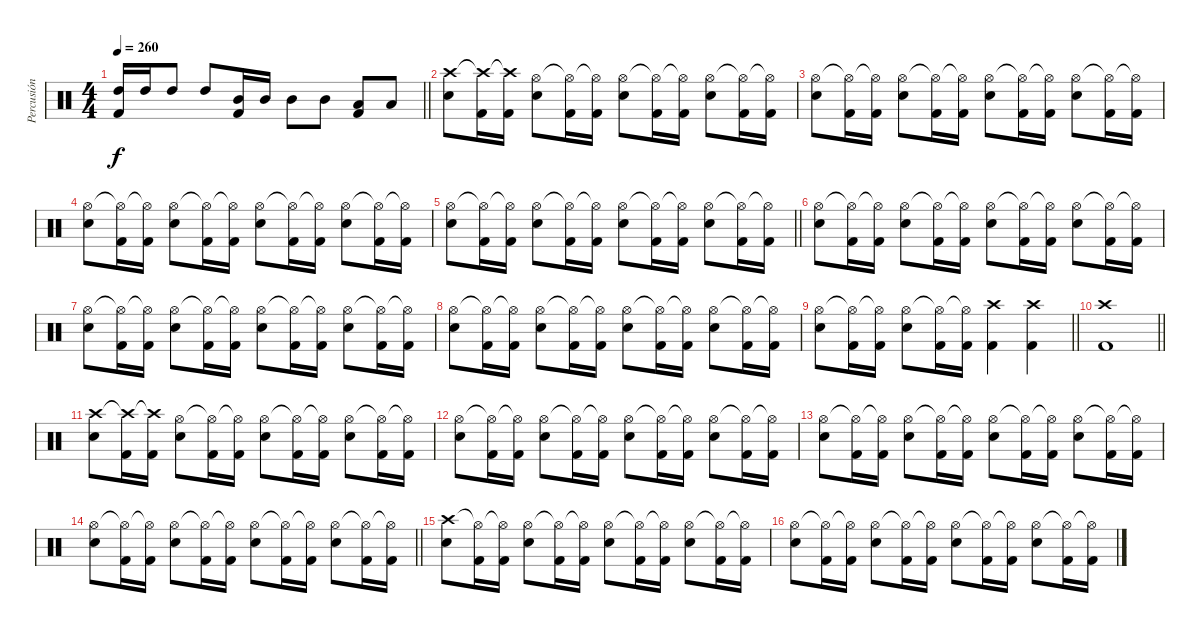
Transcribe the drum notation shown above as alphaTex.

\track ("Percusión" "Percusión") {instrument percussion}
\staff {score}
\articulation defaults
\ts (4 4)
\tempo 260
\clef neutral
\barLineRight lightlight
\ks c
("Kick (hit) 2" "High Tom (hit)").16{dy f} "High Tom (hit)".16 "High Tom (hit)".8 "High Tom (hit)".8 ("Kick (hit) 2" "Mid Tom (hit)").16 "Mid Tom (hit)".16 "Mid Tom (hit)".8 "Mid Tom (hit)".8 ("Kick (hit) 2" "Low Tom (hit)").8 "Low Tom (hit)".8 |
("Snare (hit) 2" "Crash high (hit)").8 ("Kick (hit) 2" "Crash high (hit)"{t}).16 ("Kick (hit) 2" "Crash high (hit)"{t}).16 ("Snare (hit) 2" "Hi-Hat (open)").8 ("Kick (hit) 2" "Hi-Hat (open)"{t}).16 ("Kick (hit) 2" "Hi-Hat (open)"{t}).16 ("Snare (hit) 2" "Hi-Hat (open)").8 ("Kick (hit) 2" "Hi-Hat (open)"{t}).16 ("Kick (hit) 2" "Hi-Hat (open)"{t}).16 ("Snare (hit) 2" "Hi-Hat (open)").8 ("Kick (hit) 2" "Hi-Hat (open)"{t}).16 ("Kick (hit) 2" "Hi-Hat (open)"{t}).16 |
("Snare (hit) 2" "Hi-Hat (open)").8 ("Kick (hit) 2" "Hi-Hat (open)"{t}).16 ("Kick (hit) 2" "Hi-Hat (open)"{t}).16 ("Snare (hit) 2" "Hi-Hat (open)").8 ("Kick (hit) 2" "Hi-Hat (open)"{t}).16 ("Kick (hit) 2" "Hi-Hat (open)"{t}).16 ("Snare (hit) 2" "Hi-Hat (open)").8 ("Kick (hit) 2" "Hi-Hat (open)"{t}).16 ("Kick (hit) 2" "Hi-Hat (open)"{t}).16 ("Snare (hit) 2" "Hi-Hat (open)").8 ("Kick (hit) 2" "Hi-Hat (open)"{t}).16 ("Kick (hit) 2" "Hi-Hat (open)"{t}).16 |
("Snare (hit) 2" "Hi-Hat (open)").8 ("Kick (hit) 2" "Hi-Hat (open)"{t}).16 ("Kick (hit) 2" "Hi-Hat (open)"{t}).16 ("Snare (hit) 2" "Hi-Hat (open)").8 ("Kick (hit) 2" "Hi-Hat (open)"{t}).16 ("Kick (hit) 2" "Hi-Hat (open)"{t}).16 ("Snare (hit) 2" "Hi-Hat (open)").8 ("Kick (hit) 2" "Hi-Hat (open)"{t}).16 ("Kick (hit) 2" "Hi-Hat (open)"{t}).16 ("Snare (hit) 2" "Hi-Hat (open)").8 ("Kick (hit) 2" "Hi-Hat (open)"{t}).16 ("Kick (hit) 2" "Hi-Hat (open)"{t}).16 |
\barLineRight lightlight
("Snare (hit) 2" "Hi-Hat (open)").8 ("Kick (hit) 2" "Hi-Hat (open)"{t}).16 ("Kick (hit) 2" "Hi-Hat (open)"{t}).16 ("Snare (hit) 2" "Hi-Hat (open)").8 ("Kick (hit) 2" "Hi-Hat (open)"{t}).16 ("Kick (hit) 2" "Hi-Hat (open)"{t}).16 ("Snare (hit) 2" "Hi-Hat (open)").8 ("Kick (hit) 2" "Hi-Hat (open)"{t}).16 ("Kick (hit) 2" "Hi-Hat (open)"{t}).16 ("Snare (hit) 2" "Hi-Hat (open)").8 ("Kick (hit) 2" "Hi-Hat (open)"{t}).16 ("Kick (hit) 2" "Hi-Hat (open)"{t}).16 |
("Snare (hit) 2" "Hi-Hat (open)").8 ("Kick (hit) 2" "Hi-Hat (open)"{t}).16 ("Kick (hit) 2" "Hi-Hat (open)"{t}).16 ("Snare (hit) 2" "Hi-Hat (open)").8 ("Kick (hit) 2" "Hi-Hat (open)"{t}).16 ("Kick (hit) 2" "Hi-Hat (open)"{t}).16 ("Snare (hit) 2" "Hi-Hat (open)").8 ("Kick (hit) 2" "Hi-Hat (open)"{t}).16 ("Kick (hit) 2" "Hi-Hat (open)"{t}).16 ("Snare (hit) 2" "Hi-Hat (open)").8 ("Kick (hit) 2" "Hi-Hat (open)"{t}).16 ("Kick (hit) 2" "Hi-Hat (open)"{t}).16 |
("Snare (hit) 2" "Hi-Hat (open)").8 ("Kick (hit) 2" "Hi-Hat (open)"{t}).16 ("Kick (hit) 2" "Hi-Hat (open)"{t}).16 ("Snare (hit) 2" "Hi-Hat (open)").8 ("Kick (hit) 2" "Hi-Hat (open)"{t}).16 ("Kick (hit) 2" "Hi-Hat (open)"{t}).16 ("Snare (hit) 2" "Hi-Hat (open)").8 ("Kick (hit) 2" "Hi-Hat (open)"{t}).16 ("Kick (hit) 2" "Hi-Hat (open)"{t}).16 ("Snare (hit) 2" "Hi-Hat (open)").8 ("Kick (hit) 2" "Hi-Hat (open)"{t}).16 ("Kick (hit) 2" "Hi-Hat (open)"{t}).16 |
("Snare (hit) 2" "Hi-Hat (open)").8 ("Kick (hit) 2" "Hi-Hat (open)"{t}).16 ("Kick (hit) 2" "Hi-Hat (open)"{t}).16 ("Snare (hit) 2" "Hi-Hat (open)").8 ("Kick (hit) 2" "Hi-Hat (open)"{t}).16 ("Kick (hit) 2" "Hi-Hat (open)"{t}).16 ("Snare (hit) 2" "Hi-Hat (open)").8 ("Kick (hit) 2" "Hi-Hat (open)"{t}).16 ("Kick (hit) 2" "Hi-Hat (open)"{t}).16 ("Snare (hit) 2" "Hi-Hat (open)").8 ("Kick (hit) 2" "Hi-Hat (open)"{t}).16 ("Kick (hit) 2" "Hi-Hat (open)"{t}).16 |
\barLineRight lightlight
("Snare (hit) 2" "Hi-Hat (open)").8 ("Kick (hit) 2" "Hi-Hat (open)"{t}).16 ("Kick (hit) 2" "Hi-Hat (open)"{t}).16 ("Snare (hit) 2" "Hi-Hat (open)").8 ("Kick (hit) 2" "Hi-Hat (open)"{t}).16 ("Kick (hit) 2" "Hi-Hat (open)"{t}).16 ("Kick (hit) 2" "Crash high (hit)").4 ("Kick (hit) 2" "Crash high (hit)").4 |
\barLineRight lightlight
("Kick (hit) 2" "Crash high (hit)").1 |
("Snare (hit) 2" "Crash high (hit)").8 ("Kick (hit) 2" "Crash high (hit)"{t}).16 ("Kick (hit) 2" "Crash high (hit)"{t}).16 ("Snare (hit) 2" "Hi-Hat (open)").8 ("Kick (hit) 2" "Hi-Hat (open)"{t}).16 ("Kick (hit) 2" "Hi-Hat (open)"{t}).16 ("Snare (hit) 2" "Hi-Hat (open)").8 ("Kick (hit) 2" "Hi-Hat (open)"{t}).16 ("Kick (hit) 2" "Hi-Hat (open)"{t}).16 ("Snare (hit) 2" "Hi-Hat (open)").8 ("Kick (hit) 2" "Hi-Hat (open)"{t}).16 ("Kick (hit) 2" "Hi-Hat (open)"{t}).16 |
("Snare (hit) 2" "Hi-Hat (open)").8 ("Kick (hit) 2" "Hi-Hat (open)"{t}).16 ("Kick (hit) 2" "Hi-Hat (open)"{t}).16 ("Snare (hit) 2" "Hi-Hat (open)").8 ("Kick (hit) 2" "Hi-Hat (open)"{t}).16 ("Kick (hit) 2" "Hi-Hat (open)"{t}).16 ("Snare (hit) 2" "Hi-Hat (open)").8 ("Kick (hit) 2" "Hi-Hat (open)"{t}).16 ("Kick (hit) 2" "Hi-Hat (open)"{t}).16 ("Snare (hit) 2" "Hi-Hat (open)").8 ("Kick (hit) 2" "Hi-Hat (open)"{t}).16 ("Kick (hit) 2" "Hi-Hat (open)"{t}).16 |
("Snare (hit) 2" "Hi-Hat (open)").8 ("Kick (hit) 2" "Hi-Hat (open)"{t}).16 ("Kick (hit) 2" "Hi-Hat (open)"{t}).16 ("Snare (hit) 2" "Hi-Hat (open)").8 ("Kick (hit) 2" "Hi-Hat (open)"{t}).16 ("Kick (hit) 2" "Hi-Hat (open)"{t}).16 ("Snare (hit) 2" "Hi-Hat (open)").8 ("Kick (hit) 2" "Hi-Hat (open)"{t}).16 ("Kick (hit) 2" "Hi-Hat (open)"{t}).16 ("Snare (hit) 2" "Hi-Hat (open)").8 ("Kick (hit) 2" "Hi-Hat (open)"{t}).16 ("Kick (hit) 2" "Hi-Hat (open)"{t}).16 |
\barLineRight lightlight
("Snare (hit) 2" "Hi-Hat (open)").8 ("Kick (hit) 2" "Hi-Hat (open)"{t}).16 ("Kick (hit) 2" "Hi-Hat (open)"{t}).16 ("Snare (hit) 2" "Hi-Hat (open)").8 ("Kick (hit) 2" "Hi-Hat (open)"{t}).16 ("Kick (hit) 2" "Hi-Hat (open)"{t}).16 ("Snare (hit) 2" "Hi-Hat (open)").8 ("Kick (hit) 2" "Hi-Hat (open)"{t}).16 ("Kick (hit) 2" "Hi-Hat (open)"{t}).16 ("Snare (hit) 2" "Hi-Hat (open)").8 ("Kick (hit) 2" "Hi-Hat (open)"{t}).16 ("Kick (hit) 2" "Hi-Hat (open)"{t}).16 |
("Snare (hit) 2" "Crash high (hit)").8 ("Kick (hit) 2" "Hi-Hat (open)"{t}).16 ("Kick (hit) 2" "Hi-Hat (open)"{t}).16 ("Snare (hit) 2" "Hi-Hat (open)").8 ("Kick (hit) 2" "Hi-Hat (open)"{t}).16 ("Kick (hit) 2" "Hi-Hat (open)"{t}).16 ("Snare (hit) 2" "Hi-Hat (open)").8 ("Kick (hit) 2" "Hi-Hat (open)"{t}).16 ("Kick (hit) 2" "Hi-Hat (open)"{t}).16 ("Snare (hit) 2" "Hi-Hat (open)").8 ("Kick (hit) 2" "Hi-Hat (open)"{t}).16 ("Kick (hit) 2" "Hi-Hat (open)"{t}).16 |
("Snare (hit) 2" "Hi-Hat (open)").8 ("Kick (hit) 2" "Hi-Hat (open)"{t}).16 ("Kick (hit) 2" "Hi-Hat (open)"{t}).16 ("Snare (hit) 2" "Hi-Hat (open)").8 ("Kick (hit) 2" "Hi-Hat (open)"{t}).16 ("Kick (hit) 2" "Hi-Hat (open)"{t}).16 ("Snare (hit) 2" "Hi-Hat (open)").8 ("Kick (hit) 2" "Hi-Hat (open)"{t}).16 ("Kick (hit) 2" "Hi-Hat (open)"{t}).16 ("Snare (hit) 2" "Hi-Hat (open)").8 ("Kick (hit) 2" "Hi-Hat (open)"{t}).16 ("Kick (hit) 2" "Hi-Hat (open)"{t}).16
